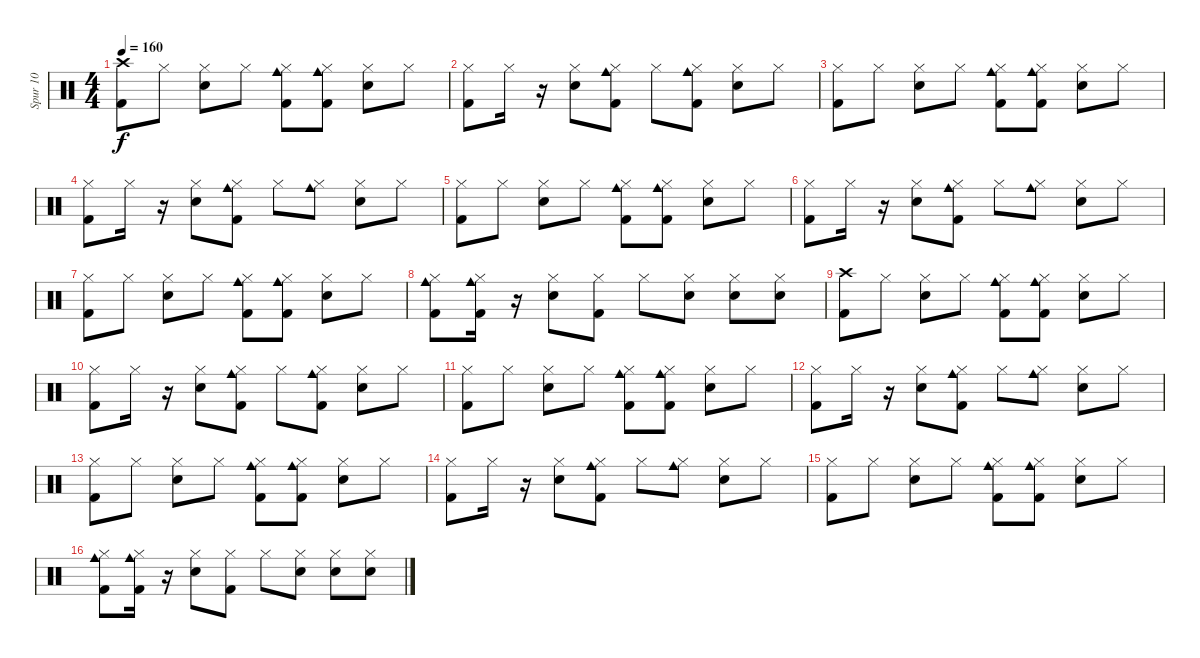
\track ("Spur 10" "Spur 10") {instrument percussion}
\staff {score}
\articulation defaults
\ts (4 4)
\tempo 160
\clef neutral
\ks c
("Crash high (hit)" "Kick (hit) 2").8{dy f} "Hi-Hat (closed)".8 ("Hi-Hat (closed)" "Snare (hit) 2").8 "Hi-Hat (closed)".8 ("Hi-Hat (closed)" "Cowbell medium (hit)" "Kick (hit) 2").8 ("Hi-Hat (closed)" "Cowbell medium (hit)" "Kick (hit) 2").8 ("Hi-Hat (closed)" "Snare (hit) 2").8 "Hi-Hat (closed)".8 |
("Hi-Hat (closed)" "Kick (hit) 2").8 "Hi-Hat (closed)".16 r.16 ("Hi-Hat (closed)" "Snare (hit) 2").8 ("Hi-Hat (closed)" "Kick (hit) 2" "Cowbell medium (hit)").8 "Hi-Hat (closed)".8 ("Hi-Hat (closed)" "Kick (hit) 2" "Cowbell medium (hit)").8 ("Hi-Hat (closed)" "Snare (hit) 2").8 "Hi-Hat (closed)".8 |
("Hi-Hat (closed)" "Kick (hit) 2").8 "Hi-Hat (closed)".8 ("Hi-Hat (closed)" "Snare (hit) 2").8 "Hi-Hat (closed)".8 ("Hi-Hat (closed)" "Cowbell medium (hit)" "Kick (hit) 2").8 ("Hi-Hat (closed)" "Cowbell medium (hit)" "Kick (hit) 2").8 ("Hi-Hat (closed)" "Snare (hit) 2").8 "Hi-Hat (closed)".8 |
("Hi-Hat (closed)" "Kick (hit) 2").8 "Hi-Hat (closed)".16 r.16 ("Hi-Hat (closed)" "Snare (hit) 2").8 ("Hi-Hat (closed)" "Kick (hit) 2" "Cowbell medium (hit)").8 "Hi-Hat (closed)".8 ("Hi-Hat (closed)" "Cowbell medium (hit)").8 ("Hi-Hat (closed)" "Snare (hit) 2").8 "Hi-Hat (closed)".8 |
("Hi-Hat (closed)" "Kick (hit) 2").8 "Hi-Hat (closed)".8 ("Hi-Hat (closed)" "Snare (hit) 2").8 "Hi-Hat (closed)".8 ("Hi-Hat (closed)" "Cowbell medium (hit)" "Kick (hit) 2").8 ("Hi-Hat (closed)" "Cowbell medium (hit)" "Kick (hit) 2").8 ("Hi-Hat (closed)" "Snare (hit) 2").8 "Hi-Hat (closed)".8 |
("Hi-Hat (closed)" "Kick (hit) 2").8 "Hi-Hat (closed)".16 r.16 ("Hi-Hat (closed)" "Snare (hit) 2").8 ("Hi-Hat (closed)" "Kick (hit) 2" "Cowbell medium (hit)").8 "Hi-Hat (closed)".8 ("Hi-Hat (closed)" "Cowbell medium (hit)").8 ("Hi-Hat (closed)" "Snare (hit) 2").8 "Hi-Hat (closed)".8 |
("Hi-Hat (closed)" "Kick (hit) 2").8 "Hi-Hat (closed)".8 ("Hi-Hat (closed)" "Snare (hit) 2").8 "Hi-Hat (closed)".8 ("Hi-Hat (closed)" "Cowbell medium (hit)" "Kick (hit) 2").8 ("Hi-Hat (closed)" "Cowbell medium (hit)" "Kick (hit) 2").8 ("Hi-Hat (closed)" "Snare (hit) 2").8 "Hi-Hat (closed)".8 |
("Cowbell medium (hit)" "Hi-Hat (closed)" "Kick (hit) 2").8 ("Cowbell medium (hit)" "Kick (hit) 2" "Hi-Hat (closed)").16 r.16 ("Hi-Hat (closed)" "Snare (hit) 2").8 ("Hi-Hat (closed)" "Kick (hit) 2").8 "Hi-Hat (closed)".8 ("Hi-Hat (closed)" "Snare (hit) 2").8 ("Hi-Hat (closed)" "Snare (hit) 2").8 ("Snare (hit) 2" "Hi-Hat (closed)").8 |
("Crash high (hit)" "Kick (hit) 2").8 "Hi-Hat (closed)".8 ("Hi-Hat (closed)" "Snare (hit) 2").8 "Hi-Hat (closed)".8{volume 12} ("Hi-Hat (closed)" "Cowbell medium (hit)" "Kick (hit) 2").8{volume 12} ("Hi-Hat (closed)" "Cowbell medium (hit)" "Kick (hit) 2").8{volume 12} ("Hi-Hat (closed)" "Snare (hit) 2").8{volume 12} "Hi-Hat (closed)".8{volume 12} |
("Hi-Hat (closed)" "Kick (hit) 2").8{volume 12} "Hi-Hat (closed)".16{volume 12} r.16 ("Hi-Hat (closed)" "Snare (hit) 2").8{volume 11} ("Hi-Hat (closed)" "Kick (hit) 2" "Cowbell medium (hit)").8{volume 11} "Hi-Hat (closed)".8 ("Hi-Hat (closed)" "Kick (hit) 2" "Cowbell medium (hit)").8{volume 11} ("Hi-Hat (closed)" "Snare (hit) 2").8{volume 11} "Hi-Hat (closed)".8{volume 11} |
("Hi-Hat (closed)" "Kick (hit) 2").8 "Hi-Hat (closed)".8{volume 10} ("Hi-Hat (closed)" "Snare (hit) 2").8 "Hi-Hat (closed)".8{volume 10} ("Hi-Hat (closed)" "Cowbell medium (hit)" "Kick (hit) 2").8{volume 10} ("Hi-Hat (closed)" "Cowbell medium (hit)" "Kick (hit) 2").8{volume 10} ("Hi-Hat (closed)" "Snare (hit) 2").8{volume 10} "Hi-Hat (closed)".8{volume 10} |
("Hi-Hat (closed)" "Kick (hit) 2").8{volume 10} "Hi-Hat (closed)".16{volume 10} r.16 ("Hi-Hat (closed)" "Snare (hit) 2").8{volume 10} ("Hi-Hat (closed)" "Kick (hit) 2" "Cowbell medium (hit)").8{volume 9} "Hi-Hat (closed)".8{volume 9} ("Hi-Hat (closed)" "Cowbell medium (hit)").8{volume 9} ("Hi-Hat (closed)" "Snare (hit) 2").8 "Hi-Hat (closed)".8{volume 9} |
("Hi-Hat (closed)" "Kick (hit) 2").8 "Hi-Hat (closed)".8{volume 8} ("Hi-Hat (closed)" "Snare (hit) 2").8{volume 8} "Hi-Hat (closed)".8{volume 8} ("Hi-Hat (closed)" "Cowbell medium (hit)" "Kick (hit) 2").8{volume 8} ("Hi-Hat (closed)" "Cowbell medium (hit)" "Kick (hit) 2").8{volume 8} ("Hi-Hat (closed)" "Snare (hit) 2").8{volume 8} "Hi-Hat (closed)".8{volume 8} |
("Hi-Hat (closed)" "Kick (hit) 2").8{volume 8} "Hi-Hat (closed)".16{volume 8} r.16 ("Hi-Hat (closed)" "Snare (hit) 2").8{volume 7} ("Hi-Hat (closed)" "Kick (hit) 2" "Cowbell medium (hit)").8{volume 7} "Hi-Hat (closed)".8{volume 7} ("Hi-Hat (closed)" "Cowbell medium (hit)").8{volume 7} ("Hi-Hat (closed)" "Snare (hit) 2").8 "Hi-Hat (closed)".8{volume 6} |
("Hi-Hat (closed)" "Kick (hit) 2").8{volume 6} "Hi-Hat (closed)".8{volume 5} ("Hi-Hat (closed)" "Snare (hit) 2").8{volume 4} "Hi-Hat (closed)".8{volume 4} ("Hi-Hat (closed)" "Cowbell medium (hit)" "Kick (hit) 2").8{volume 3} ("Hi-Hat (closed)" "Cowbell medium (hit)" "Kick (hit) 2").8{volume 2} ("Hi-Hat (closed)" "Snare (hit) 2").8{volume 2} "Hi-Hat (closed)".8{volume 1} |
("Cowbell medium (hit)" "Hi-Hat (closed)" "Kick (hit) 2").8{volume 0} ("Cowbell medium (hit)" "Kick (hit) 2" "Hi-Hat (closed)").16{volume 0} r.16 ("Hi-Hat (closed)" "Snare (hit) 2").8{volume 0} ("Hi-Hat (closed)" "Kick (hit) 2").8{volume 0} "Hi-Hat (closed)".8{volume 0} ("Hi-Hat (closed)" "Snare (hit) 2").8{volume 0} ("Hi-Hat (closed)" "Snare (hit) 2").8 ("Snare (hit) 2" "Hi-Hat (closed)").8
